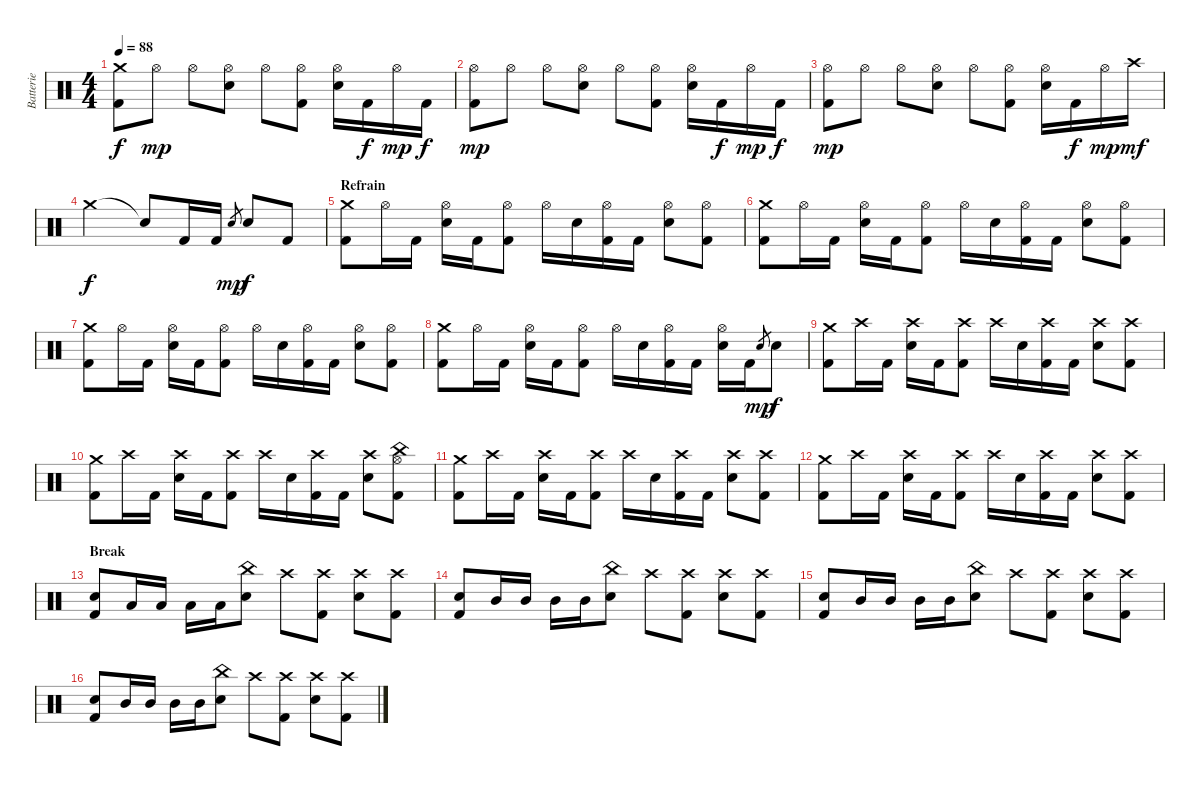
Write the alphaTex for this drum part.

\track ("Batterie" "Batterie") {instrument percussion}
\staff {score}
\articulation defaults
\ts (4 4)
\tempo 88
\clef neutral
\ks c
("Crash medium (hit)" "Kick (hit) 2").8{dy f} "Hi-Hat (open)".8{dy mp} "Hi-Hat (open)".8 ("Hi-Hat (open)" "Electric Snare (hit)").8 "Hi-Hat (open)".8 ("Hi-Hat (open)" "Kick (hit) 2").8 ("Hi-Hat (open)" "Electric Snare (hit)").16 "Kick (hit) 2".16{dy f} "Hi-Hat (open)".16{dy mp} "Kick (hit) 2".16{dy f} |
("Hi-Hat (open)" "Kick (hit) 2").8{dy mp} "Hi-Hat (open)".8 "Hi-Hat (open)".8 ("Hi-Hat (open)" "Electric Snare (hit)").8 "Hi-Hat (open)".8 ("Hi-Hat (open)" "Kick (hit) 2").8 ("Hi-Hat (open)" "Electric Snare (hit)").16 "Kick (hit) 2".16{dy f} "Hi-Hat (open)".16{dy mp} "Kick (hit) 2".16{dy f} |
("Hi-Hat (open)" "Kick (hit) 2").8{dy mp} "Hi-Hat (open)".8 "Hi-Hat (open)".8 ("Hi-Hat (open)" "Electric Snare (hit)").8 "Hi-Hat (open)".8 ("Hi-Hat (open)" "Kick (hit) 2").8 ("Hi-Hat (open)" "Electric Snare (hit)").16 "Kick (hit) 2".16{dy f} "Hi-Hat (open)".16{dy mp} "Crash high (hit)".16{dy mf} |
"Crash medium (hit)".2{dy f} "Snare (hit)"{t}.8 "Kick (hit) 2".16 "Kick (hit) 2".16 "Electric Snare (hit)".8{gr dy mp} "Electric Snare (hit)".8{dy f} "Kick (hit) 2".8 |
\section ("" "Refrain")
("Crash medium (hit)" "Kick (hit) 2").8 "Hi-Hat (open)".16 "Kick (hit) 2".16 ("Hi-Hat (open)" "Electric Snare (hit)").16 "Kick (hit) 2".16 ("Hi-Hat (open)" "Kick (hit) 2").8 "Hi-Hat (open)".16 "Electric Snare (hit)".16 ("Hi-Hat (open)" "Kick (hit) 2").16 "Kick (hit) 2".16 ("Hi-Hat (open)" "Electric Snare (hit)").8 ("Hi-Hat (open)" "Kick (hit) 2").8 |
("Crash medium (hit)" "Kick (hit) 2").8 "Hi-Hat (open)".16 "Kick (hit) 2".16 ("Hi-Hat (open)" "Electric Snare (hit)").16 "Kick (hit) 2".16 ("Hi-Hat (open)" "Kick (hit) 2").8 "Hi-Hat (open)".16 "Electric Snare (hit)".16 ("Hi-Hat (open)" "Kick (hit) 2").16 "Kick (hit) 2".16 ("Hi-Hat (open)" "Electric Snare (hit)").8 ("Hi-Hat (open)" "Kick (hit) 2").8 |
("Crash medium (hit)" "Kick (hit) 2").8 "Hi-Hat (open)".16 "Kick (hit) 2".16 ("Hi-Hat (open)" "Electric Snare (hit)").16 "Kick (hit) 2".16 ("Hi-Hat (open)" "Kick (hit) 2").8 "Hi-Hat (open)".16 "Electric Snare (hit)".16 ("Hi-Hat (open)" "Kick (hit) 2").16 "Kick (hit) 2".16 ("Hi-Hat (open)" "Electric Snare (hit)").8 ("Hi-Hat (open)" "Kick (hit) 2").8 |
("Crash medium (hit)" "Kick (hit) 2").8 "Hi-Hat (open)".16 "Kick (hit) 2".16 ("Hi-Hat (open)" "Electric Snare (hit)").16 "Kick (hit) 2".16 ("Hi-Hat (open)" "Kick (hit) 2").8 "Hi-Hat (open)".16 "Electric Snare (hit)".16 ("Hi-Hat (open)" "Kick (hit) 2").16 "Kick (hit) 2".16 ("Hi-Hat (open)" "Electric Snare (hit)").16 "Kick (hit) 2".16 "Electric Snare (hit)".8{gr dy mp} "Electric Snare (hit)".8{dy f} |
("Crash medium (hit)" "Kick (hit) 2").8 "Crash high (hit)".16 "Kick (hit) 2".16 ("Crash high (hit)" "Electric Snare (hit)").16 "Kick (hit) 2".16 ("Crash high (hit)" "Kick (hit) 2").8 "Crash high (hit)".16 "Electric Snare (hit)".16 ("Crash high (hit)" "Kick (hit) 2").16 "Kick (hit) 2".16 ("Crash high (hit)" "Electric Snare (hit)").8 ("Crash high (hit)" "Kick (hit) 2").8 |
("Crash medium (hit)" "Kick (hit) 2").8 "Crash high (hit)".16 "Kick (hit) 2".16 ("Crash high (hit)" "Electric Snare (hit)").16 "Kick (hit) 2".16 ("Crash high (hit)" "Kick (hit) 2").8 "Crash high (hit)".16 "Electric Snare (hit)".16 ("Crash high (hit)" "Kick (hit) 2").16 "Kick (hit) 2".16 ("Crash high (hit)" "Electric Snare (hit)").8 ("China (hit)" "Hi-Hat (open)" "Kick (hit) 2").8 |
("Crash medium (hit)" "Kick (hit) 2").8 "Crash high (hit)".16 "Kick (hit) 2".16 ("Crash high (hit)" "Electric Snare (hit)").16 "Kick (hit) 2".16 ("Crash high (hit)" "Kick (hit) 2").8 "Crash high (hit)".16 "Electric Snare (hit)".16 ("Crash high (hit)" "Kick (hit) 2").16 "Kick (hit) 2".16 ("Crash high (hit)" "Electric Snare (hit)").8 ("Crash high (hit)" "Kick (hit) 2").8 |
("Crash medium (hit)" "Kick (hit) 2").8 "Crash high (hit)".16 "Kick (hit) 2".16 ("Crash high (hit)" "Electric Snare (hit)").16 "Kick (hit) 2".16 ("Crash high (hit)" "Kick (hit) 2").8 "Crash high (hit)".16 "Electric Snare (hit)".16 ("Crash high (hit)" "Kick (hit) 2").16 "Kick (hit) 2".16 ("Crash high (hit)" "Electric Snare (hit)").8 ("Crash high (hit)" "Kick (hit) 2").8 |
\section ("" "Break")
("Electric Snare (hit)" "Kick (hit) 2").8 "Low Tom (hit)".16 "Low Tom (hit)".16 "Low Tom (hit)".16 "Low Tom (hit)".16 ("China (hit)" "Electric Snare (hit)").8 "Crash high (hit)".8 ("Crash high (hit)" "Kick (hit) 2").8 ("Crash high (hit)" "Electric Snare (hit)").8 ("Crash high (hit)" "Kick (hit) 2").8 |
("Electric Snare (hit)" "Kick (hit) 2").8 "Mid Tom (hit)".16 "Mid Tom (hit)".16 "Mid Tom (hit)".16 "Mid Tom (hit)".16 ("China (hit)" "Electric Snare (hit)").8 "Crash high (hit)".8 ("Crash high (hit)" "Kick (hit) 2").8 ("Crash high (hit)" "Electric Snare (hit)").8 ("Crash high (hit)" "Kick (hit) 2").8 |
("Electric Snare (hit)" "Kick (hit) 2").8 "Mid Tom (hit)".16 "Mid Tom (hit)".16 "Mid Tom (hit)".16 "Mid Tom (hit)".16 ("China (hit)" "Electric Snare (hit)").8 "Crash high (hit)".8 ("Crash high (hit)" "Kick (hit) 2").8 ("Crash high (hit)" "Electric Snare (hit)").8 ("Crash high (hit)" "Kick (hit) 2").8 |
("Electric Snare (hit)" "Kick (hit) 2").8 "Mid Tom (hit)".16 "Mid Tom (hit)".16 "Mid Tom (hit)".16 "Mid Tom (hit)".16 ("China (hit)" "Electric Snare (hit)").8 "Crash high (hit)".8 ("Crash high (hit)" "Kick (hit) 2").8 ("Crash high (hit)" "Electric Snare (hit)").8 ("Crash high (hit)" "Kick (hit) 2").8
